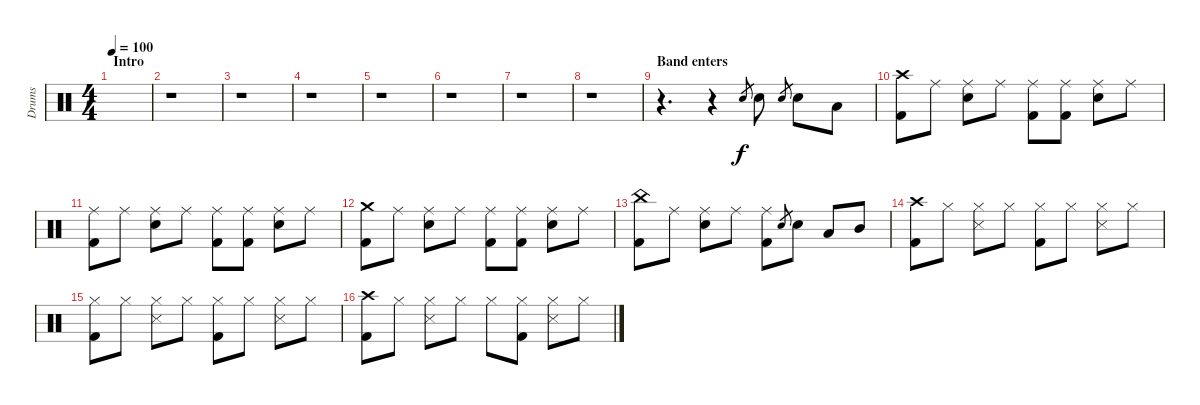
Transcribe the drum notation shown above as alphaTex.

\track ("Drums" "Drums") {instrument percussion}
\staff {score}
\articulation defaults
\ts (4 4)
\section ("" "Intro")
\tempo 100
\clef neutral
\ks c
|
r.1 |
r.1 |
r.1 |
r.1 |
r.1 |
r.1 |
r.1 |
\section ("" "Band enters")
r.4{d} r.4 "Snare (hit) 2".8{gr} "Snare (hit) 2".8 "Snare (hit) 2".8{gr} "Snare (hit) 2".8 "Low Tom (hit)".8 |
("Crash high (hit)" "Kick (hit) 2").8 "Ride (middle)".8 ("Ride (middle)" "Snare (hit) 2").8 "Ride (middle)".8 ("Ride (middle)" "Kick (hit) 2").8 ("Ride (middle)" "Kick (hit) 2").8 ("Ride (middle)" "Snare (hit) 2").8 "Ride (middle)".8 |
("Ride (middle)" "Kick (hit) 2").8 "Ride (middle)".8 ("Ride (middle)" "Snare (hit) 2").8 "Ride (middle)".8 ("Ride (middle)" "Kick (hit) 2").8 ("Ride (middle)" "Kick (hit) 2").8 ("Ride (middle)" "Snare (hit) 2").8 "Ride (middle)".8 |
("Crash medium (hit)" "Kick (hit) 2").8 "Ride (middle)".8 ("Ride (middle)" "Snare (hit) 2").8 "Ride (middle)".8 ("Ride (middle)" "Kick (hit) 2").8 ("Ride (middle)" "Kick (hit) 2").8 ("Ride (middle)" "Snare (hit) 2").8 "Ride (middle)".8 |
("China (hit)" "Kick (hit) 2").8 "Ride (middle)".8 ("Ride (middle)" "Snare (hit) 2").8 "Ride (middle)".8 ("Ride (middle)" "Kick (hit) 2").8 "Snare (hit) 2".8{gr} "Snare (hit) 2".8 "Low Tom (hit)".8 "Mid Tom (hit)".8 |
("Crash high (hit)" "Kick (hit) 2").8 "Hi-Hat (closed)".8 ("Hi-Hat (closed)" "Snare (side stick) 3").8 "Hi-Hat (closed)".8 ("Hi-Hat (closed)" "Kick (hit) 2").8 "Hi-Hat (closed)".8 ("Hi-Hat (closed)" "Snare (side stick) 3").8 "Hi-Hat (closed)".8 |
("Hi-Hat (closed)" "Kick (hit) 2").8 "Hi-Hat (closed)".8 ("Hi-Hat (closed)" "Snare (side stick) 3").8 "Hi-Hat (closed)".8 ("Hi-Hat (closed)" "Kick (hit) 2").8 "Hi-Hat (closed)".8 ("Hi-Hat (closed)" "Snare (side stick) 3").8 "Hi-Hat (closed)".8 |
("Crash high (hit)" "Kick (hit) 2").8 "Hi-Hat (closed)".8 ("Hi-Hat (closed)" "Snare (side stick) 3").8 "Hi-Hat (closed)".8 "Hi-Hat (closed)".8 ("Hi-Hat (closed)" "Kick (hit) 2").8 ("Hi-Hat (closed)" "Snare (side stick) 3").8 "Hi-Hat (closed)".8
